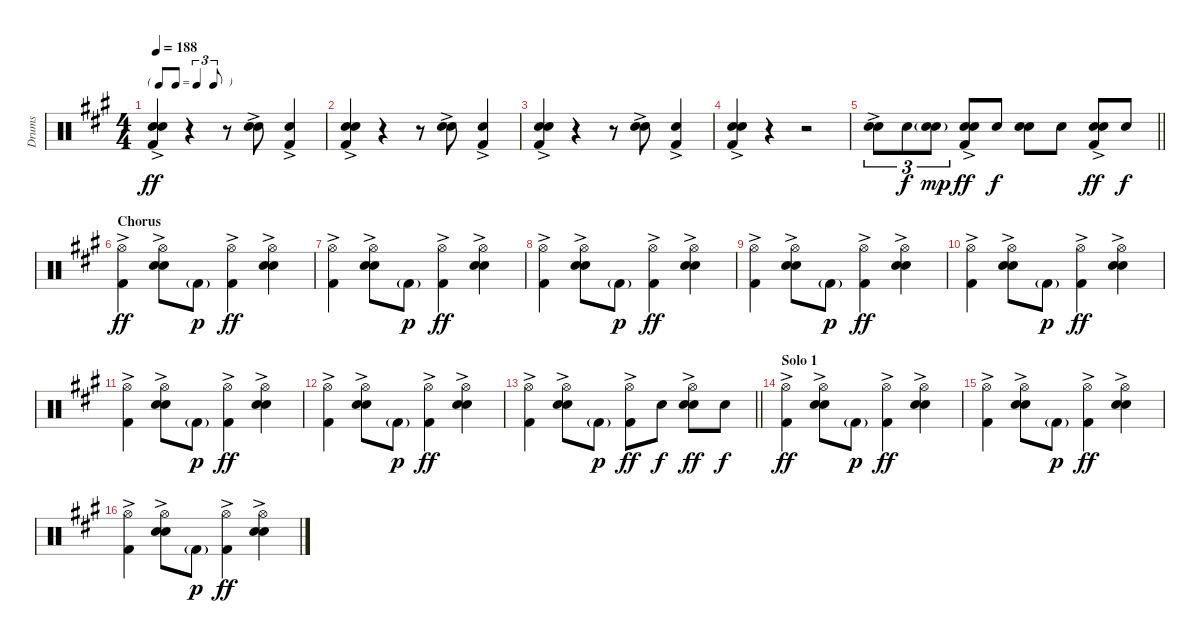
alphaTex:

\track ("Drums" "Drums") {instrument percussion}
\staff {score}
\articulation defaults
\ts (4 4)
\tf triplet8th
\tempo 188
\clef neutral
\ks a
("Electric Snare (hit)"{ac} "Snare (hit) 2" "Kick (hit) 2"{ac}).4{dy ff} r.4 r.8 ("Electric Snare (hit)"{ac} "Snare (hit) 2").8 ("Snare (hit) 2" "Kick (hit) 2"{ac}).4 |
("Electric Snare (hit)"{ac} "Snare (hit) 2" "Kick (hit) 2"{ac}).4 r.4 r.8 ("Electric Snare (hit)"{ac} "Snare (hit) 2").8 ("Snare (hit) 2" "Kick (hit) 2"{ac}).4 |
("Electric Snare (hit)"{ac} "Snare (hit) 2" "Kick (hit) 2"{ac}).4 r.4 r.8 ("Electric Snare (hit)"{ac} "Snare (hit) 2").8 ("Snare (hit) 2" "Kick (hit) 2"{ac}).4 |
("Electric Snare (hit)"{ac} "Snare (hit) 2" "Kick (hit) 2"{ac}).4 r.4 r.2 |
\barLineRight lightlight
("Electric Snare (hit)"{ac} "Snare (hit) 2").8{tu (3 2)} "Snare (hit) 2".8{tu (3 2) dy f} ("Electric Snare (hit)"{g} "Snare (hit) 2").8{tu (3 2) dy mp} ("Electric Snare (hit)"{ac} "Snare (hit) 2" "Kick (hit) 2").8{dy ff} "Snare (hit) 2".8{dy f} ("Electric Snare (hit)" "Snare (hit) 2").8 "Snare (hit) 2".8 ("Electric Snare (hit)"{ac} "Snare (hit) 2" "Kick (hit) 2").8{dy ff} "Snare (hit) 2".8{dy f} |
\section ("" "Chorus")
("Hi-Hat (open)" "Kick (hit) 2"{ac}).4{dy ff} ("Hi-Hat (open)" "Electric Snare (hit)"{ac} "Snare (hit) 2").8 "Kick (hit) 2"{g}.8{dy p} ("Hi-Hat (open)" "Kick (hit) 2"{ac}).4{dy ff} ("Hi-Hat (open)" "Electric Snare (hit)"{ac} "Snare (hit) 2").4 |
("Hi-Hat (open)" "Kick (hit) 2"{ac}).4 ("Hi-Hat (open)" "Electric Snare (hit)"{ac} "Snare (hit) 2").8 "Kick (hit) 2"{g}.8{dy p} ("Hi-Hat (open)" "Kick (hit) 2"{ac}).4{dy ff} ("Hi-Hat (open)" "Electric Snare (hit)"{ac} "Snare (hit) 2").4 |
("Hi-Hat (open)" "Kick (hit) 2"{ac}).4 ("Hi-Hat (open)" "Electric Snare (hit)"{ac} "Snare (hit) 2").8 "Kick (hit) 2"{g}.8{dy p} ("Hi-Hat (open)" "Kick (hit) 2"{ac}).4{dy ff} ("Hi-Hat (open)" "Electric Snare (hit)"{ac} "Snare (hit) 2").4 |
("Hi-Hat (open)" "Kick (hit) 2"{ac}).4 ("Hi-Hat (open)" "Electric Snare (hit)"{ac} "Snare (hit) 2").8 "Kick (hit) 2"{g}.8{dy p} ("Hi-Hat (open)" "Kick (hit) 2"{ac}).4{dy ff} ("Hi-Hat (open)" "Electric Snare (hit)"{ac} "Snare (hit) 2").4 |
("Hi-Hat (open)" "Kick (hit) 2"{ac}).4 ("Hi-Hat (open)" "Electric Snare (hit)"{ac} "Snare (hit) 2").8 "Kick (hit) 2"{g}.8{dy p} ("Hi-Hat (open)" "Kick (hit) 2"{ac}).4{dy ff} ("Hi-Hat (open)" "Electric Snare (hit)"{ac} "Snare (hit) 2").4 |
("Hi-Hat (open)" "Kick (hit) 2"{ac}).4 ("Hi-Hat (open)" "Electric Snare (hit)"{ac} "Snare (hit) 2").8 "Kick (hit) 2"{g}.8{dy p} ("Hi-Hat (open)" "Kick (hit) 2"{ac}).4{dy ff} ("Hi-Hat (open)" "Electric Snare (hit)"{ac} "Snare (hit) 2").4 |
("Hi-Hat (open)" "Kick (hit) 2"{ac}).4 ("Hi-Hat (open)" "Electric Snare (hit)"{ac} "Snare (hit) 2").8 "Kick (hit) 2"{g}.8{dy p} ("Hi-Hat (open)" "Kick (hit) 2"{ac}).4{dy ff} ("Hi-Hat (open)" "Electric Snare (hit)"{ac} "Snare (hit) 2").4 |
\barLineRight lightlight
("Hi-Hat (open)" "Kick (hit) 2"{ac}).4 ("Hi-Hat (open)" "Electric Snare (hit)"{ac} "Snare (hit) 2").8 "Kick (hit) 2"{g}.8{dy p} ("Hi-Hat (open)" "Kick (hit) 2"{ac}).8{dy ff} "Snare (hit) 2".8{dy f} ("Hi-Hat (open)" "Electric Snare (hit)"{ac} "Snare (hit) 2").8{dy ff} "Snare (hit) 2".8{dy f} |
\section ("" "Solo 1")
("Hi-Hat (open)" "Kick (hit) 2"{ac}).4{dy ff} ("Hi-Hat (open)" "Electric Snare (hit)"{ac} "Snare (hit) 2").8 "Kick (hit) 2"{g}.8{dy p} ("Hi-Hat (open)" "Kick (hit) 2"{ac}).4{dy ff} ("Hi-Hat (open)" "Electric Snare (hit)"{ac} "Snare (hit) 2").4 |
("Hi-Hat (open)" "Kick (hit) 2"{ac}).4 ("Hi-Hat (open)" "Electric Snare (hit)"{ac} "Snare (hit) 2").8 "Kick (hit) 2"{g}.8{dy p} ("Hi-Hat (open)" "Kick (hit) 2"{ac}).4{dy ff} ("Hi-Hat (open)" "Electric Snare (hit)"{ac} "Snare (hit) 2").4 |
("Hi-Hat (open)" "Kick (hit) 2"{ac}).4 ("Hi-Hat (open)" "Electric Snare (hit)"{ac} "Snare (hit) 2").8 "Kick (hit) 2"{g}.8{dy p} ("Hi-Hat (open)" "Kick (hit) 2"{ac}).4{dy ff} ("Hi-Hat (open)" "Electric Snare (hit)"{ac} "Snare (hit) 2").4
